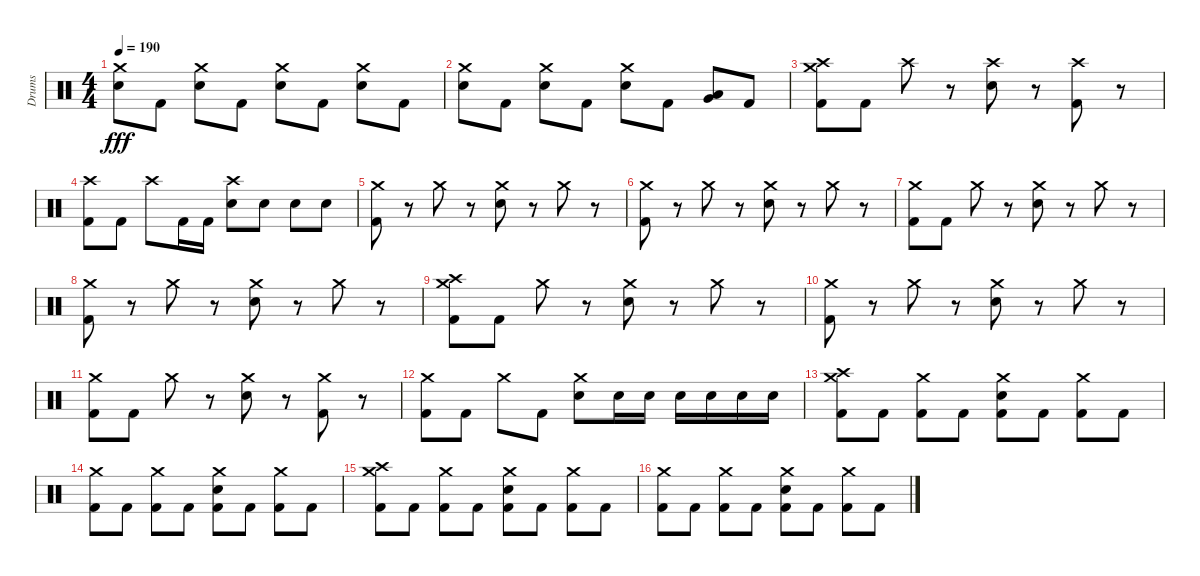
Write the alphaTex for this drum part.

\track ("Drums" "Drums") {instrument percussion}
\staff {score}
\articulation defaults
\ts (4 4)
\tempo 190
\clef neutral
\ks c
("Crash medium (hit)" "Electric Snare (hit)").8{dy fff} "Kick (hit) 2".8 ("Crash medium (hit)" "Electric Snare (hit)").8 "Kick (hit) 2".8 ("Crash medium (hit)" "Electric Snare (hit)").8 "Kick (hit) 2".8 ("Crash medium (hit)" "Electric Snare (hit)").8 "Kick (hit) 2".8 |
("Crash medium (hit)" "Electric Snare (hit)").8 "Kick (hit) 2".8 ("Crash medium (hit)" "Electric Snare (hit)").8 "Kick (hit) 2".8 ("Crash medium (hit)" "Electric Snare (hit)").8 "Kick (hit) 2".8 ("Very Low Tom (hit)" "Low Floor Tom (hit)").8 "Kick (hit) 2".8 |
("Crash high (hit)" "Crash medium (hit)" "Kick (hit) 2").8 "Kick (hit) 2".8 "Crash high (hit)".8 r.8 ("Crash high (hit)" "Electric Snare (hit)").8 r.8 ("Crash high (hit)" "Kick (hit) 2").8 r.8 |
("Crash high (hit)" "Kick (hit) 2").8 "Kick (hit) 2".8 "Crash high (hit)".8 "Kick (hit) 2".16 "Kick (hit) 2".16 ("Crash high (hit)" "Electric Snare (hit)").8 "Electric Snare (hit)".8 "Electric Snare (hit)".8 "Electric Snare (hit)".8 |
("Crash medium (hit)" "Kick (hit) 2").8 r.8 "Crash medium (hit)".8 r.8 ("Crash medium (hit)" "Electric Snare (hit)").8 r.8 "Crash medium (hit)".8 r.8 |
("Crash medium (hit)" "Kick (hit) 2").8 r.8 "Crash medium (hit)".8 r.8 ("Crash medium (hit)" "Electric Snare (hit)").8 r.8 "Crash medium (hit)".8 r.8 |
("Crash medium (hit)" "Kick (hit) 2").8 "Kick (hit) 2".8 "Crash medium (hit)".8 r.8 ("Crash medium (hit)" "Electric Snare (hit)").8 r.8 "Crash medium (hit)".8 r.8 |
("Crash medium (hit)" "Kick (hit) 2").8 r.8 "Crash medium (hit)".8 r.8 ("Crash medium (hit)" "Electric Snare (hit)").8 r.8 "Crash medium (hit)".8 r.8 |
("Crash medium (hit)" "Crash high (hit)" "Kick (hit) 2").8 "Kick (hit) 2".8 "Crash medium (hit)".8 r.8 ("Crash medium (hit)" "Electric Snare (hit)").8 r.8 "Crash medium (hit)".8 r.8 |
("Crash medium (hit)" "Kick (hit) 2").8 r.8 "Crash medium (hit)".8 r.8 ("Crash medium (hit)" "Electric Snare (hit)").8 r.8 "Crash medium (hit)".8 r.8 |
("Crash medium (hit)" "Kick (hit) 2").8 "Kick (hit) 2".8 "Crash medium (hit)".8 r.8 ("Crash medium (hit)" "Electric Snare (hit)").8 r.8 ("Crash medium (hit)" "Kick (hit) 2").8 r.8 |
("Crash medium (hit)" "Kick (hit) 2").8 "Kick (hit) 2".8 "Crash medium (hit)".8 "Kick (hit) 2".8 ("Crash medium (hit)" "Electric Snare (hit)").8 "Electric Snare (hit)".16 "Electric Snare (hit)".16 "Electric Snare (hit)".16 "Electric Snare (hit)".16 "Electric Snare (hit)".16 "Electric Snare (hit)".16 |
("Crash medium (hit)" "Crash high (hit)" "Kick (hit) 2").8 "Kick (hit) 2".8 ("Crash medium (hit)" "Kick (hit) 2").8 "Kick (hit) 2".8 ("Crash medium (hit)" "Electric Snare (hit)" "Kick (hit) 2").8 "Kick (hit) 2".8 ("Crash medium (hit)" "Kick (hit) 2").8 "Kick (hit) 2".8 |
("Crash medium (hit)" "Kick (hit) 2").8 "Kick (hit) 2".8 ("Crash medium (hit)" "Kick (hit) 2").8 "Kick (hit) 2".8 ("Crash medium (hit)" "Electric Snare (hit)" "Kick (hit) 2").8 "Kick (hit) 2".8 ("Crash medium (hit)" "Kick (hit) 2").8 "Kick (hit) 2".8 |
("Crash medium (hit)" "Crash high (hit)" "Kick (hit) 2").8 "Kick (hit) 2".8 ("Crash medium (hit)" "Kick (hit) 2").8 "Kick (hit) 2".8 ("Crash medium (hit)" "Electric Snare (hit)" "Kick (hit) 2").8 "Kick (hit) 2".8 ("Crash medium (hit)" "Kick (hit) 2").8 "Kick (hit) 2".8 |
("Crash medium (hit)" "Kick (hit) 2").8 "Kick (hit) 2".8 ("Crash medium (hit)" "Kick (hit) 2").8 "Kick (hit) 2".8 ("Crash medium (hit)" "Electric Snare (hit)" "Kick (hit) 2").8 "Kick (hit) 2".8 ("Crash medium (hit)" "Kick (hit) 2").8 "Kick (hit) 2".8
